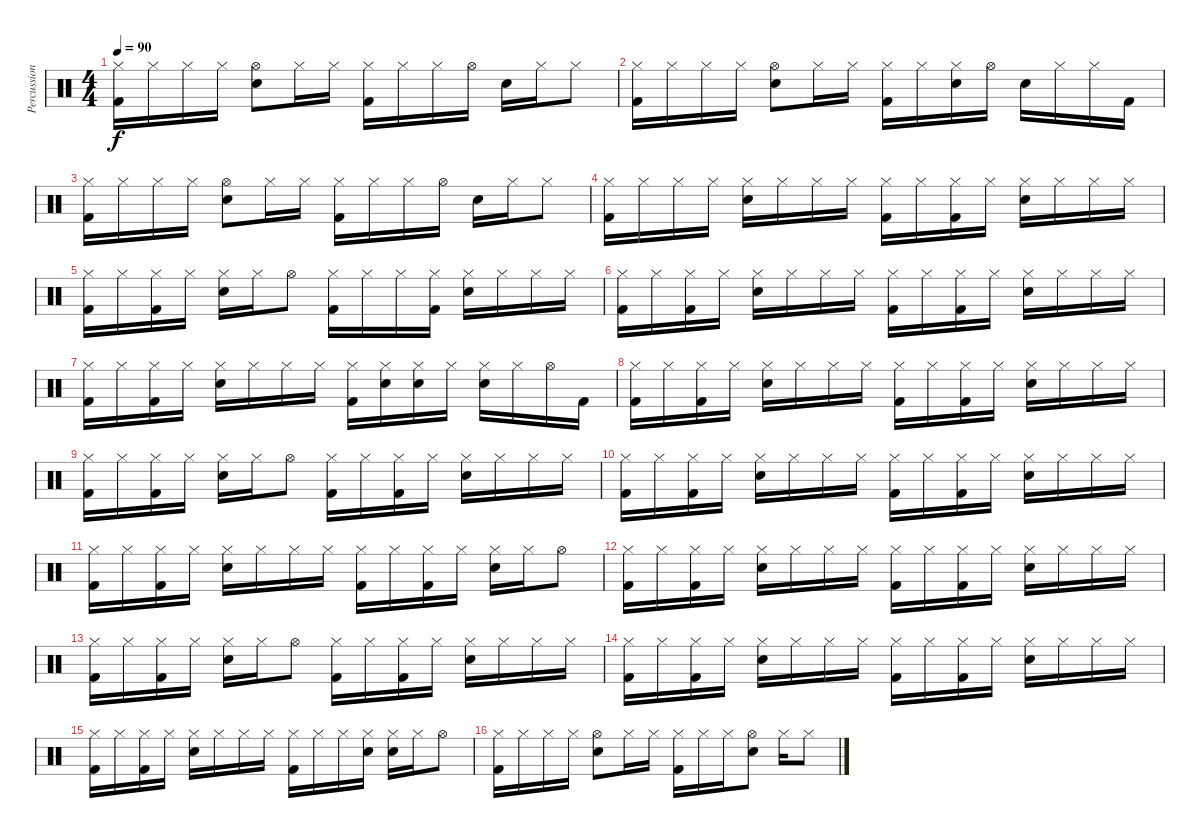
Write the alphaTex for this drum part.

\track ("Percussion" "Percussion") {instrument percussion}
\staff {score}
\articulation defaults
\ts (4 4)
\tempo 90
\clef neutral
\ks c
("Hi-Hat (closed)" "Kick (hit) 2").16{dy f} "Hi-Hat (closed)".16 "Hi-Hat (closed)".16 "Hi-Hat (closed)".16 ("Hi-Hat (open)" "Electric Snare (hit)").8 "Hi-Hat (closed)".16 "Hi-Hat (closed)".16 ("Hi-Hat (closed)" "Kick (hit) 2").16 "Hi-Hat (closed)".16 "Hi-Hat (closed)".16 "Hi-Hat (open)".16 "Electric Snare (hit)".16 "Hi-Hat (closed)".16 "Hi-Hat (closed)".8 |
("Hi-Hat (closed)" "Kick (hit) 2").16 "Hi-Hat (closed)".16 "Hi-Hat (closed)".16 "Hi-Hat (closed)".16 ("Hi-Hat (open)" "Electric Snare (hit)").8 "Hi-Hat (closed)".16 "Hi-Hat (closed)".16 ("Hi-Hat (closed)" "Kick (hit) 2").16 "Hi-Hat (closed)".16 ("Hi-Hat (closed)" "Electric Snare (hit)").16 "Hi-Hat (open)".16 "Electric Snare (hit)".16 "Hi-Hat (closed)".16 "Hi-Hat (closed)".16 "Kick (hit) 2".16 |
("Hi-Hat (closed)" "Kick (hit) 2").16 "Hi-Hat (closed)".16 "Hi-Hat (closed)".16 "Hi-Hat (closed)".16 ("Hi-Hat (open)" "Electric Snare (hit)").8 "Hi-Hat (closed)".16 "Hi-Hat (closed)".16 ("Hi-Hat (closed)" "Kick (hit) 2").16 "Hi-Hat (closed)".16 "Hi-Hat (closed)".16 "Hi-Hat (open)".16 "Electric Snare (hit)".16 "Hi-Hat (closed)".16 "Hi-Hat (closed)".8 |
("Hi-Hat (closed)" "Kick (hit) 2").16 "Hi-Hat (closed)".16 "Hi-Hat (closed)".16 "Hi-Hat (closed)".16 ("Hi-Hat (closed)" "Electric Snare (hit)").16 "Hi-Hat (closed)".16 "Hi-Hat (closed)".16 "Hi-Hat (closed)".16 ("Hi-Hat (closed)" "Kick (hit) 2").16 "Hi-Hat (closed)".16 ("Hi-Hat (closed)" "Kick (hit) 2").16 "Hi-Hat (closed)".16 ("Hi-Hat (closed)" "Electric Snare (hit)").16 "Hi-Hat (closed)".16 "Hi-Hat (closed)".16 "Hi-Hat (closed)".16 |
("Hi-Hat (closed)" "Kick (hit) 2").16 "Hi-Hat (closed)".16 ("Hi-Hat (closed)" "Kick (hit) 2").16 "Hi-Hat (closed)".16 ("Hi-Hat (closed)" "Electric Snare (hit)").16 "Hi-Hat (closed)".16 "Hi-Hat (open)".8 ("Hi-Hat (closed)" "Kick (hit) 2").16 "Hi-Hat (closed)".16 "Hi-Hat (closed)".16 ("Hi-Hat (closed)" "Kick (hit) 2").16 ("Hi-Hat (closed)" "Electric Snare (hit)").16 "Hi-Hat (closed)".16 "Hi-Hat (closed)".16 "Hi-Hat (closed)".16 |
("Hi-Hat (closed)" "Kick (hit) 2").16 "Hi-Hat (closed)".16 ("Hi-Hat (closed)" "Kick (hit) 2").16 "Hi-Hat (closed)".16 ("Hi-Hat (closed)" "Electric Snare (hit)").16 "Hi-Hat (closed)".16 "Hi-Hat (closed)".16 "Hi-Hat (closed)".16 ("Hi-Hat (closed)" "Kick (hit) 2").16 "Hi-Hat (closed)".16 ("Hi-Hat (closed)" "Kick (hit) 2").16 "Hi-Hat (closed)".16 ("Hi-Hat (closed)" "Electric Snare (hit)").16 "Hi-Hat (closed)".16 "Hi-Hat (closed)".16 "Hi-Hat (closed)".16 |
("Hi-Hat (closed)" "Kick (hit) 2").16 "Hi-Hat (closed)".16 ("Hi-Hat (closed)" "Kick (hit) 2").16 "Hi-Hat (closed)".16 ("Hi-Hat (closed)" "Electric Snare (hit)").16 "Hi-Hat (closed)".16 "Hi-Hat (closed)".16 "Hi-Hat (closed)".16 ("Hi-Hat (closed)" "Kick (hit) 2").16 ("Hi-Hat (closed)" "Electric Snare (hit)").16 ("Hi-Hat (closed)" "Electric Snare (hit)").16 "Hi-Hat (closed)".16 ("Hi-Hat (closed)" "Electric Snare (hit)").16 "Hi-Hat (closed)".16 "Hi-Hat (open)".16 "Kick (hit) 2".16 |
("Hi-Hat (closed)" "Kick (hit) 2").16 "Hi-Hat (closed)".16 ("Hi-Hat (closed)" "Kick (hit) 2").16 "Hi-Hat (closed)".16 ("Hi-Hat (closed)" "Electric Snare (hit)").16 "Hi-Hat (closed)".16 "Hi-Hat (closed)".16 "Hi-Hat (closed)".16 ("Hi-Hat (closed)" "Kick (hit) 2").16 "Hi-Hat (closed)".16 ("Hi-Hat (closed)" "Kick (hit) 2").16 "Hi-Hat (closed)".16 ("Hi-Hat (closed)" "Electric Snare (hit)").16 "Hi-Hat (closed)".16 "Hi-Hat (closed)".16 "Hi-Hat (closed)".16 |
("Hi-Hat (closed)" "Kick (hit) 2").16 "Hi-Hat (closed)".16 ("Hi-Hat (closed)" "Kick (hit) 2").16 "Hi-Hat (closed)".16 ("Hi-Hat (closed)" "Electric Snare (hit)").16 "Hi-Hat (closed)".16 "Hi-Hat (open)".8 ("Hi-Hat (closed)" "Kick (hit) 2").16 "Hi-Hat (closed)".16 ("Hi-Hat (closed)" "Kick (hit) 2").16 "Hi-Hat (closed)".16 ("Hi-Hat (closed)" "Electric Snare (hit)").16 "Hi-Hat (closed)".16 "Hi-Hat (closed)".16 "Hi-Hat (closed)".16 |
("Hi-Hat (closed)" "Kick (hit) 2").16 "Hi-Hat (closed)".16 ("Hi-Hat (closed)" "Kick (hit) 2").16 "Hi-Hat (closed)".16 ("Hi-Hat (closed)" "Electric Snare (hit)").16 "Hi-Hat (closed)".16 "Hi-Hat (closed)".16 "Hi-Hat (closed)".16 ("Hi-Hat (closed)" "Kick (hit) 2").16 "Hi-Hat (closed)".16 ("Hi-Hat (closed)" "Kick (hit) 2").16 "Hi-Hat (closed)".16 ("Hi-Hat (closed)" "Electric Snare (hit)").16 "Hi-Hat (closed)".16 "Hi-Hat (closed)".16 "Hi-Hat (closed)".16 |
("Hi-Hat (closed)" "Kick (hit) 2").16 "Hi-Hat (closed)".16 ("Hi-Hat (closed)" "Kick (hit) 2").16 "Hi-Hat (closed)".16 ("Hi-Hat (closed)" "Electric Snare (hit)").16 "Hi-Hat (closed)".16 "Hi-Hat (closed)".16 "Hi-Hat (closed)".16 ("Hi-Hat (closed)" "Kick (hit) 2").16 "Hi-Hat (closed)".16 ("Hi-Hat (closed)" "Kick (hit) 2").16 "Hi-Hat (closed)".16 ("Hi-Hat (closed)" "Electric Snare (hit)").16 "Hi-Hat (closed)".16 "Hi-Hat (open)".8 |
("Hi-Hat (closed)" "Kick (hit) 2").16 "Hi-Hat (closed)".16 ("Hi-Hat (closed)" "Kick (hit) 2").16 "Hi-Hat (closed)".16 ("Hi-Hat (closed)" "Electric Snare (hit)").16 "Hi-Hat (closed)".16 "Hi-Hat (closed)".16 "Hi-Hat (closed)".16 ("Hi-Hat (closed)" "Kick (hit) 2").16 "Hi-Hat (closed)".16 ("Hi-Hat (closed)" "Kick (hit) 2").16 "Hi-Hat (closed)".16 ("Hi-Hat (closed)" "Electric Snare (hit)").16 "Hi-Hat (closed)".16 "Hi-Hat (closed)".16 "Hi-Hat (closed)".16 |
("Hi-Hat (closed)" "Kick (hit) 2").16 "Hi-Hat (closed)".16 ("Hi-Hat (closed)" "Kick (hit) 2").16 "Hi-Hat (closed)".16 ("Hi-Hat (closed)" "Electric Snare (hit)").16 "Hi-Hat (closed)".16 "Hi-Hat (open)".8 ("Hi-Hat (closed)" "Kick (hit) 2").16 "Hi-Hat (closed)".16 ("Hi-Hat (closed)" "Kick (hit) 2").16 "Hi-Hat (closed)".16 ("Hi-Hat (closed)" "Electric Snare (hit)").16 "Hi-Hat (closed)".16 "Hi-Hat (closed)".16 "Hi-Hat (closed)".16 |
("Hi-Hat (closed)" "Kick (hit) 2").16 "Hi-Hat (closed)".16 ("Hi-Hat (closed)" "Kick (hit) 2").16 "Hi-Hat (closed)".16 ("Hi-Hat (closed)" "Electric Snare (hit)").16 "Hi-Hat (closed)".16 "Hi-Hat (closed)".16 "Hi-Hat (closed)".16 ("Hi-Hat (closed)" "Kick (hit) 2").16 "Hi-Hat (closed)".16 ("Hi-Hat (closed)" "Kick (hit) 2").16 "Hi-Hat (closed)".16 ("Hi-Hat (closed)" "Electric Snare (hit)").16 "Hi-Hat (closed)".16 "Hi-Hat (closed)".16 "Hi-Hat (closed)".16 |
("Hi-Hat (closed)" "Kick (hit) 2").16 "Hi-Hat (closed)".16 ("Hi-Hat (closed)" "Kick (hit) 2").16 "Hi-Hat (closed)".16 ("Hi-Hat (closed)" "Electric Snare (hit)").16 "Hi-Hat (closed)".16 "Hi-Hat (closed)".16 "Hi-Hat (closed)".16 ("Hi-Hat (closed)" "Kick (hit) 2").16 "Hi-Hat (closed)".16 "Hi-Hat (closed)".16 ("Hi-Hat (closed)" "Electric Snare (hit)").16 ("Hi-Hat (closed)" "Electric Snare (hit)").16 "Hi-Hat (closed)".16 "Hi-Hat (open)".8 |
("Hi-Hat (closed)" "Kick (hit) 2").16 "Hi-Hat (closed)".16 "Hi-Hat (closed)".16 "Hi-Hat (closed)".16 ("Hi-Hat (open)" "Electric Snare (hit)").8 "Hi-Hat (closed)".16 "Hi-Hat (closed)".16 ("Hi-Hat (closed)" "Kick (hit) 2").16 "Hi-Hat (closed)".16 "Hi-Hat (closed)".16 ("Hi-Hat (open)" "Electric Snare (hit)").8 "Hi-Hat (closed)".16 "Hi-Hat (closed)".8
